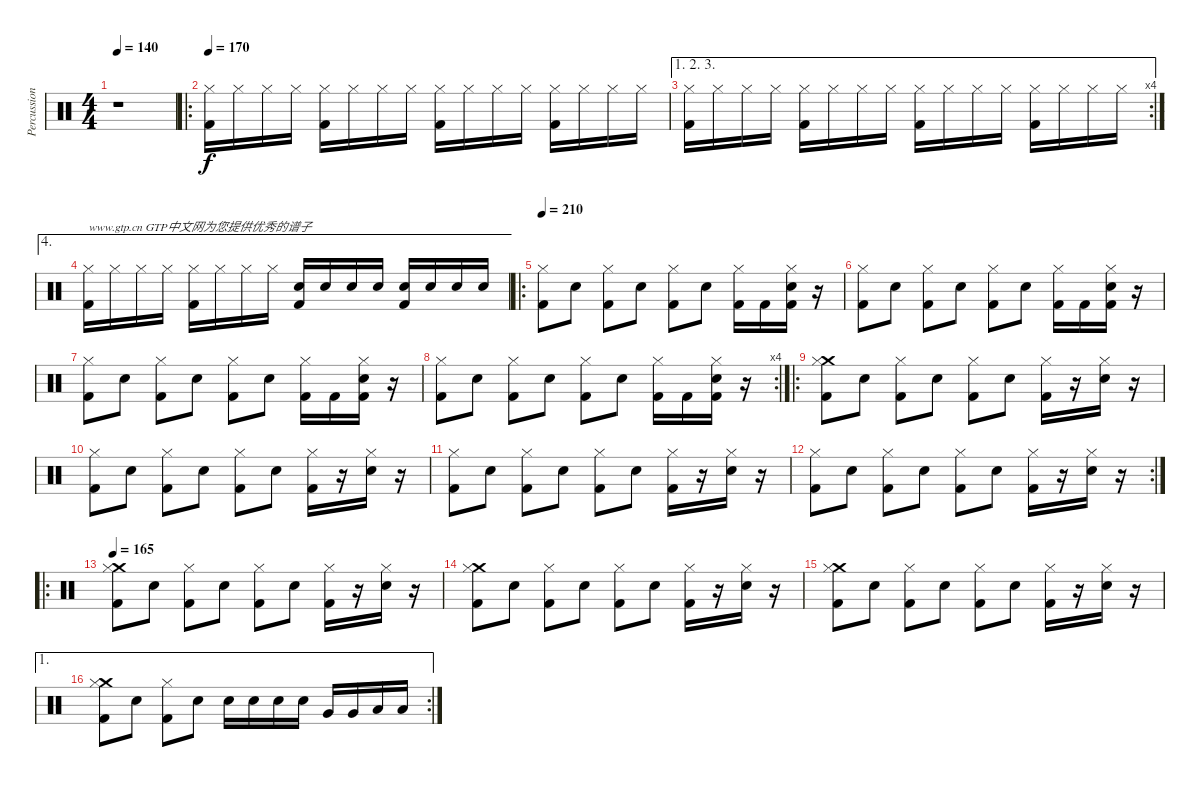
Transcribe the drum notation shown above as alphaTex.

\track ("Percussion" "Percussion") {instrument percussion}
\staff {score}
\articulation defaults
\ts (4 4)
\tempo 140
\clef neutral
\ks c
r.1{dy f} |
\ro
\tempo 170
("Kick (hit) 2" "Hi-Hat (closed)").16 "Hi-Hat (closed)".16 "Hi-Hat (closed)".16 "Hi-Hat (closed)".16 ("Kick (hit) 2" "Hi-Hat (closed)").16 "Hi-Hat (closed)".16 "Hi-Hat (closed)".16 "Hi-Hat (closed)".16 ("Kick (hit) 2" "Hi-Hat (closed)").16 "Hi-Hat (closed)".16 "Hi-Hat (closed)".16 "Hi-Hat (closed)".16 ("Kick (hit) 2" "Hi-Hat (closed)").16 "Hi-Hat (closed)".16 "Hi-Hat (closed)".16 "Hi-Hat (closed)".16 |
\ae (1 2 3)
\rc 4
("Kick (hit) 2" "Hi-Hat (closed)").16 "Hi-Hat (closed)".16 "Hi-Hat (closed)".16 "Hi-Hat (closed)".16 ("Kick (hit) 2" "Hi-Hat (closed)").16 "Hi-Hat (closed)".16 "Hi-Hat (closed)".16 "Hi-Hat (closed)".16 ("Kick (hit) 2" "Hi-Hat (closed)").16 "Hi-Hat (closed)".16 "Hi-Hat (closed)".16 "Hi-Hat (closed)".16 ("Kick (hit) 2" "Hi-Hat (closed)").16 "Hi-Hat (closed)".16 "Hi-Hat (closed)".16 "Hi-Hat (closed)".16 |
\ae 4
("Kick (hit) 2" "Hi-Hat (closed)").16{txt "www.gtp.cn GTP中文网为您提供优秀的谱子"} "Hi-Hat (closed)".16 "Hi-Hat (closed)".16 "Hi-Hat (closed)".16 ("Kick (hit) 2" "Hi-Hat (closed)").16 "Hi-Hat (closed)".16 "Hi-Hat (closed)".16 "Hi-Hat (closed)".16 ("Kick (hit) 2" "Snare (hit) 2").16 "Snare (hit) 2".16 "Snare (hit) 2".16 "Snare (hit) 2".16 ("Kick (hit) 2" "Snare (hit) 2").16 "Snare (hit) 2".16 "Snare (hit) 2".16 "Snare (hit) 2".16 |
\ro
\tempo 210
("Hi-Hat (closed)" "Kick (hit) 2").8 "Snare (hit) 2".8 ("Hi-Hat (closed)" "Kick (hit) 2").8 "Snare (hit) 2".8 ("Hi-Hat (closed)" "Kick (hit) 2").8 "Snare (hit) 2".8 ("Hi-Hat (closed)" "Kick (hit) 2").16 "Kick (hit) 2".16 ("Hi-Hat (closed)" "Snare (hit) 2" "Kick (hit) 2").16 r.16 |
("Hi-Hat (closed)" "Kick (hit) 2").8 "Snare (hit) 2".8 ("Hi-Hat (closed)" "Kick (hit) 2").8 "Snare (hit) 2".8 ("Hi-Hat (closed)" "Kick (hit) 2").8 "Snare (hit) 2".8 ("Hi-Hat (closed)" "Kick (hit) 2").16 "Kick (hit) 2".16 ("Hi-Hat (closed)" "Snare (hit) 2" "Kick (hit) 2").16 r.16 |
("Hi-Hat (closed)" "Kick (hit) 2").8 "Snare (hit) 2".8 ("Hi-Hat (closed)" "Kick (hit) 2").8 "Snare (hit) 2".8 ("Hi-Hat (closed)" "Kick (hit) 2").8 "Snare (hit) 2".8 ("Hi-Hat (closed)" "Kick (hit) 2").16 "Kick (hit) 2".16 ("Hi-Hat (closed)" "Snare (hit) 2" "Kick (hit) 2").16 r.16 |
\rc 4
("Hi-Hat (closed)" "Kick (hit) 2").8 "Snare (hit) 2".8 ("Hi-Hat (closed)" "Kick (hit) 2").8 "Snare (hit) 2".8 ("Hi-Hat (closed)" "Kick (hit) 2").8 "Snare (hit) 2".8 ("Hi-Hat (closed)" "Kick (hit) 2").16 "Kick (hit) 2".16 ("Hi-Hat (closed)" "Snare (hit) 2" "Kick (hit) 2").16 r.16 |
\ro
("Crash medium (hit)" "Hi-Hat (closed)" "Kick (hit) 2").8 "Snare (hit) 2".8 ("Hi-Hat (closed)" "Kick (hit) 2").8 "Snare (hit) 2".8 ("Hi-Hat (closed)" "Kick (hit) 2").8 "Snare (hit) 2".8 ("Hi-Hat (closed)" "Kick (hit) 2").16 r.16 ("Hi-Hat (closed)" "Snare (hit) 2").16 r.16 |
("Hi-Hat (closed)" "Kick (hit) 2").8 "Snare (hit) 2".8 ("Hi-Hat (closed)" "Kick (hit) 2").8 "Snare (hit) 2".8 ("Hi-Hat (closed)" "Kick (hit) 2").8 "Snare (hit) 2".8 ("Hi-Hat (closed)" "Kick (hit) 2").16 r.16 ("Hi-Hat (closed)" "Snare (hit) 2").16 r.16 |
("Hi-Hat (closed)" "Kick (hit) 2").8 "Snare (hit) 2".8 ("Hi-Hat (closed)" "Kick (hit) 2").8 "Snare (hit) 2".8 ("Hi-Hat (closed)" "Kick (hit) 2").8 "Snare (hit) 2".8 ("Hi-Hat (closed)" "Kick (hit) 2").16 r.16 ("Hi-Hat (closed)" "Snare (hit) 2").16 r.16 |
\rc 2
("Hi-Hat (closed)" "Kick (hit) 2").8 "Snare (hit) 2".8 ("Hi-Hat (closed)" "Kick (hit) 2").8 "Snare (hit) 2".8 ("Hi-Hat (closed)" "Kick (hit) 2").8 "Snare (hit) 2".8 ("Hi-Hat (closed)" "Kick (hit) 2").16 r.16 ("Hi-Hat (closed)" "Snare (hit) 2").16 r.16 |
\ro
\tempo 165
("Crash medium (hit)" "Hi-Hat (closed)" "Kick (hit) 2").8 "Snare (hit) 2".8 ("Hi-Hat (closed)" "Kick (hit) 2").8 "Snare (hit) 2".8 ("Hi-Hat (closed)" "Kick (hit) 2").8 "Snare (hit) 2".8 ("Hi-Hat (closed)" "Kick (hit) 2").16 r.16 ("Hi-Hat (closed)" "Snare (hit) 2").16 r.16 |
("Crash medium (hit)" "Hi-Hat (closed)" "Kick (hit) 2").8 "Snare (hit) 2".8 ("Hi-Hat (closed)" "Kick (hit) 2").8 "Snare (hit) 2".8 ("Hi-Hat (closed)" "Kick (hit) 2").8 "Snare (hit) 2".8 ("Hi-Hat (closed)" "Kick (hit) 2").16 r.16 ("Hi-Hat (closed)" "Snare (hit) 2").16 r.16 |
("Crash medium (hit)" "Hi-Hat (closed)" "Kick (hit) 2").8 "Snare (hit) 2".8 ("Hi-Hat (closed)" "Kick (hit) 2").8 "Snare (hit) 2".8 ("Hi-Hat (closed)" "Kick (hit) 2").8 "Snare (hit) 2".8 ("Hi-Hat (closed)" "Kick (hit) 2").16 r.16 ("Hi-Hat (closed)" "Snare (hit) 2").16 r.16 |
\ae 1
\rc 2
("Crash medium (hit)" "Hi-Hat (closed)" "Kick (hit) 2").8 "Snare (hit) 2".8 ("Hi-Hat (closed)" "Kick (hit) 2").8 "Snare (hit) 2".8 "Snare (hit) 2".16 "Snare (hit) 2".16 "Snare (hit) 2".16 "Snare (hit) 2".16 "Very Low Tom (hit)".16 "Very Low Tom (hit)".16 "Low Floor Tom (hit)".16 "Low Floor Tom (hit)".16
